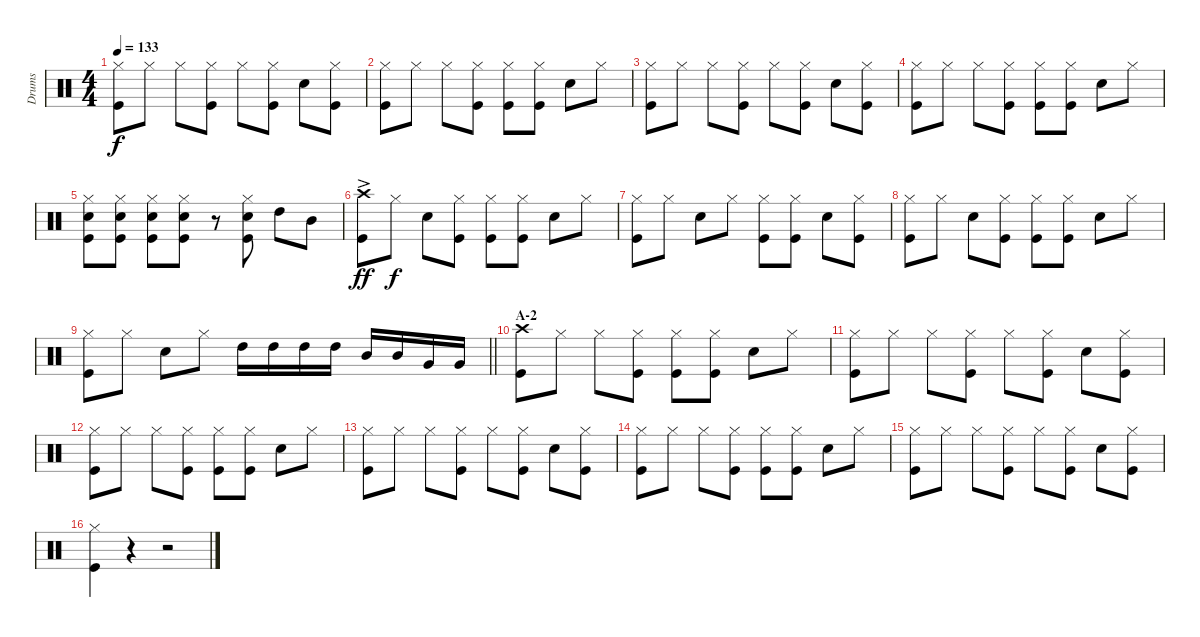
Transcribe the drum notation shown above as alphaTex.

\track ("Drums" "Drums") {instrument percussion}
\staff {score}
\articulation defaults
\ts (4 4)
\tempo 133
\clef neutral
\ks c
("Hi-Hat (closed)" "Kick (hit)").8{dy f} "Hi-Hat (closed)".8 "Hi-Hat (closed)".8 ("Hi-Hat (closed)" "Kick (hit)").8 "Hi-Hat (closed)".8 ("Hi-Hat (closed)" "Kick (hit)").8 "Snare (hit) 2".8 ("Hi-Hat (closed)" "Kick (hit)").8 |
("Kick (hit)" "Hi-Hat (closed)").8 "Hi-Hat (closed)".8 "Hi-Hat (closed)".8 ("Hi-Hat (closed)" "Kick (hit)").8 ("Hi-Hat (closed)" "Kick (hit)").8 ("Kick (hit)" "Hi-Hat (closed)").8 "Snare (hit) 2".8 "Hi-Hat (closed)".8 |
("Hi-Hat (closed)" "Kick (hit)").8 "Hi-Hat (closed)".8 "Hi-Hat (closed)".8 ("Hi-Hat (closed)" "Kick (hit)").8 "Hi-Hat (closed)".8 ("Hi-Hat (closed)" "Kick (hit)").8 "Snare (hit) 2".8 ("Hi-Hat (closed)" "Kick (hit)").8 |
("Hi-Hat (closed)" "Kick (hit)").8 "Hi-Hat (closed)".8 "Hi-Hat (closed)".8 ("Hi-Hat (closed)" "Kick (hit)").8 ("Hi-Hat (closed)" "Kick (hit)").8 ("Hi-Hat (closed)" "Kick (hit)").8 "Snare (hit) 2".8 "Hi-Hat (closed)".8 |
("Hi-Hat (closed)" "Kick (hit)" "Snare (hit) 2").8 ("Hi-Hat (closed)" "Kick (hit)" "Snare (hit) 2").8 ("Hi-Hat (closed)" "Kick (hit)" "Snare (hit) 2").8 ("Hi-Hat (closed)" "Kick (hit)" "Snare (hit) 2").8 r.8 ("Hi-Hat (closed)" "Kick (hit)" "Snare (hit) 2").8 "High Tom (hit)".8 "Mid Tom (hit)".8 |
("Crash high (hit)"{ac} "Kick (hit)").8{dy ff} "Hi-Hat (closed)".8{dy f} "Snare (hit) 2".8 ("Hi-Hat (closed)" "Kick (hit)").8 ("Hi-Hat (closed)" "Kick (hit)").8 ("Hi-Hat (closed)" "Kick (hit)").8 "Snare (hit) 2".8 "Hi-Hat (closed)".8 |
("Hi-Hat (closed)" "Kick (hit)").8 "Hi-Hat (closed)".8 "Snare (hit) 2".8 "Hi-Hat (closed)".8 ("Hi-Hat (closed)" "Kick (hit)").8 ("Hi-Hat (closed)" "Kick (hit)").8 "Snare (hit) 2".8 ("Hi-Hat (closed)" "Kick (hit)").8 |
("Hi-Hat (closed)" "Kick (hit)").8 "Hi-Hat (closed)".8 "Snare (hit) 2".8 ("Hi-Hat (closed)" "Kick (hit)").8 ("Kick (hit)" "Hi-Hat (closed)").8 ("Hi-Hat (closed)" "Kick (hit)").8 "Snare (hit) 2".8 "Hi-Hat (closed)".8 |
\barLineRight lightlight
("Hi-Hat (closed)" "Kick (hit)").8 "Hi-Hat (closed)".8 "Snare (hit) 2".8 "Hi-Hat (closed)".8 "High Tom (hit)".16 "High Tom (hit)".16 "High Tom (hit)".16 "High Tom (hit)".16 "Mid Tom (hit)".16 "Mid Tom (hit)".16 "Very Low Tom (hit)".16 "Very Low Tom (hit)".16 |
\section ("" "A-2")
("Crash high (hit)" "Kick (hit)").8 "Hi-Hat (closed)".8 "Hi-Hat (closed)".8 ("Hi-Hat (closed)" "Kick (hit)").8 ("Hi-Hat (closed)" "Kick (hit)").8 ("Hi-Hat (closed)" "Kick (hit)").8 "Snare (hit) 2".8 "Hi-Hat (closed)".8 |
("Hi-Hat (closed)" "Kick (hit)").8 "Hi-Hat (closed)".8 "Hi-Hat (closed)".8 ("Hi-Hat (closed)" "Kick (hit)").8 "Hi-Hat (closed)".8 ("Hi-Hat (closed)" "Kick (hit)").8 "Snare (hit) 2".8 ("Kick (hit)" "Hi-Hat (closed)").8 |
("Hi-Hat (closed)" "Kick (hit)").8 "Hi-Hat (closed)".8 "Hi-Hat (closed)".8 ("Hi-Hat (closed)" "Kick (hit)").8 ("Hi-Hat (closed)" "Kick (hit)").8 ("Hi-Hat (closed)" "Kick (hit)").8 "Snare (hit) 2".8 "Hi-Hat (closed)".8 |
("Hi-Hat (closed)" "Kick (hit)").8 "Hi-Hat (closed)".8 "Hi-Hat (closed)".8 ("Hi-Hat (closed)" "Kick (hit)").8 "Hi-Hat (closed)".8 ("Hi-Hat (closed)" "Kick (hit)").8 "Snare (hit) 2".8 ("Hi-Hat (closed)" "Kick (hit)").8 |
("Hi-Hat (closed)" "Kick (hit)").8 "Hi-Hat (closed)".8 "Hi-Hat (closed)".8 ("Hi-Hat (closed)" "Kick (hit)").8 ("Hi-Hat (closed)" "Kick (hit)").8 ("Hi-Hat (closed)" "Kick (hit)").8 "Snare (hit) 2".8 "Hi-Hat (closed)".8 |
("Hi-Hat (closed)" "Kick (hit)").8 "Hi-Hat (closed)".8 "Hi-Hat (closed)".8 ("Hi-Hat (closed)" "Kick (hit)").8 "Hi-Hat (closed)".8 ("Hi-Hat (closed)" "Kick (hit)").8 "Snare (hit) 2".8 ("Hi-Hat (closed)" "Kick (hit)").8 |
("Hi-Hat (closed)" "Kick (hit)").4 r.4 r.2
